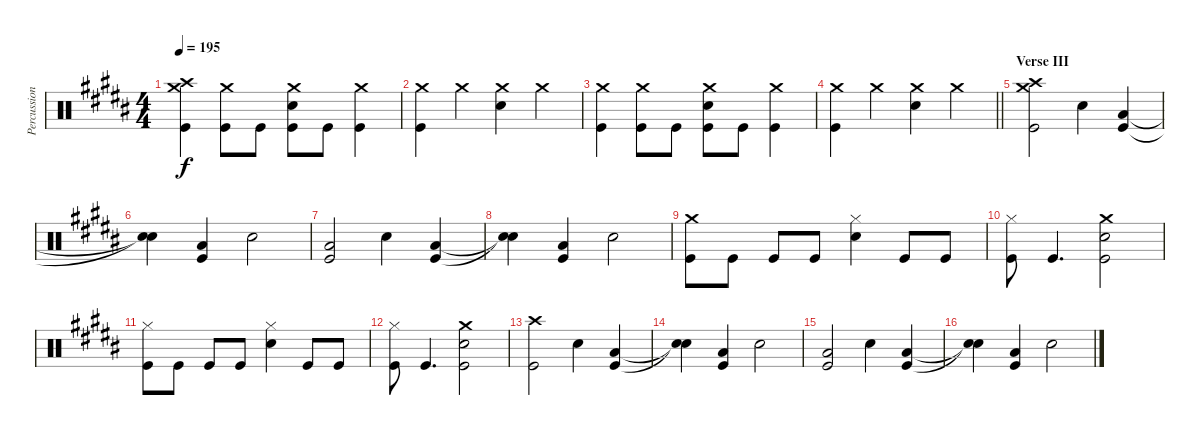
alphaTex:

\track ("Percussion" "Percussion") {instrument percussion}
\staff {score}
\articulation defaults
\ts (4 4)
\tempo 195
\clef neutral
\ks b
("Crash high (hit)" "Crash medium (hit)" "Kick (hit)").4{dy f} ("Crash medium (hit)" "Kick (hit)").8 "Kick (hit)".8 ("Crash medium (hit)" "Electric Snare (hit)" "Kick (hit)").8 "Kick (hit)".8 ("Crash medium (hit)" "Kick (hit)").4 |
("Crash medium (hit)" "Kick (hit)").4 "Crash medium (hit)".4 ("Crash medium (hit)" "Electric Snare (hit)").4 "Crash medium (hit)".4 |
("Crash medium (hit)" "Kick (hit)").4 ("Crash medium (hit)" "Kick (hit)").8 "Kick (hit)".8 ("Crash medium (hit)" "Electric Snare (hit)" "Kick (hit)").8 "Kick (hit)".8 ("Crash medium (hit)" "Kick (hit)").4 |
\barLineRight lightlight
("Crash medium (hit)" "Kick (hit)").4 "Crash medium (hit)".4 ("Crash medium (hit)" "Electric Snare (hit)").4 "Crash medium (hit)".4 |
\section ("" "Verse III")
("Crash high (hit)" "Crash medium (hit)" "Kick (hit)").2 "Electric Snare (hit)".4 ("Low Floor Tom (hit)" "Kick (hit)").4 |
("Snare (hit)"{t} "Snare (hit)"{t}).4 ("Low Floor Tom (hit)" "Kick (hit)").4 "Electric Snare (hit)".2 |
("Low Floor Tom (hit)" "Kick (hit)").2 "Electric Snare (hit)".4 ("Low Floor Tom (hit)" "Kick (hit)").4 |
("Snare (hit)"{t} "Snare (hit)"{t}).4 ("Low Floor Tom (hit)" "Kick (hit)").4 "Electric Snare (hit)".2 |
("Crash medium (hit)" "Kick (hit)").8 "Kick (hit)".8 "Kick (hit)".8 "Kick (hit)".8 ("Hi-Hat (closed)" "Electric Snare (hit)").4 "Kick (hit)".8 "Kick (hit)".8 |
("Hi-Hat (closed)" "Kick (hit)").8 "Kick (hit)".4{d} ("Crash medium (hit)" "Electric Snare (hit)" "Kick (hit)").2 |
("Hi-Hat (closed)" "Kick (hit)").8 "Kick (hit)".8 "Kick (hit)".8 "Kick (hit)".8 ("Hi-Hat (closed)" "Electric Snare (hit)").4 "Kick (hit)".8 "Kick (hit)".8 |
("Hi-Hat (closed)" "Kick (hit)").8 "Kick (hit)".4{d} ("Crash medium (hit)" "Electric Snare (hit)" "Kick (hit)").2 |
("Crash high (hit)" "Kick (hit)").2 "Electric Snare (hit)".4 ("Low Floor Tom (hit)" "Kick (hit)").4 |
("Snare (hit)"{t} "Snare (hit)"{t}).4 ("Low Floor Tom (hit)" "Kick (hit)").4 "Electric Snare (hit)".2 |
("Low Floor Tom (hit)" "Kick (hit)").2 "Electric Snare (hit)".4 ("Low Floor Tom (hit)" "Kick (hit)").4 |
("Snare (hit)"{t} "Snare (hit)"{t}).4 ("Low Floor Tom (hit)" "Kick (hit)").4 "Electric Snare (hit)".2
